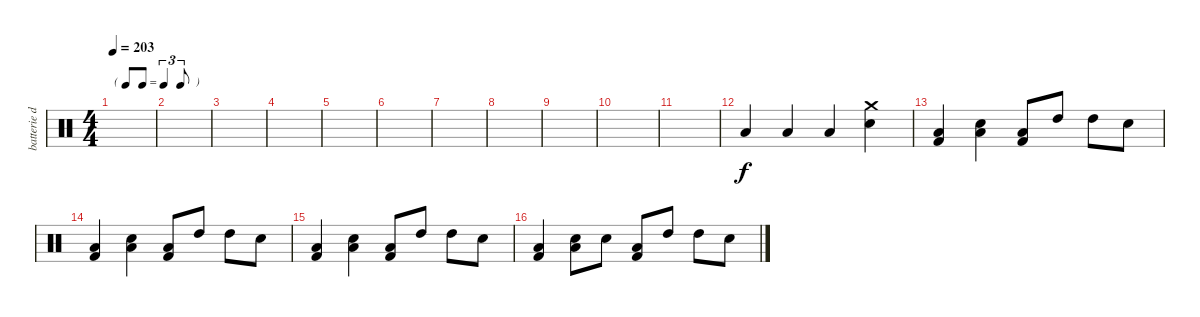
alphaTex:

\track ("batterie dub" "batterie d") {instrument percussion}
\staff {score}
\articulation defaults
\ts (4 4)
\tf triplet8th
\tempo 203
\clef neutral
\ks c
|
|
|
|
|
|
|
|
|
|
|
"Low Tom (hit)".4 "Low Tom (hit)".4 "Low Tom (hit)".4 ("Crash medium (hit)" "Electric Snare (hit)").4 |
("Low Tom (hit)" "Kick (hit) 2").4 ("Low Tom (hit)" "Electric Snare (hit)").4 ("Low Tom (hit)" "Kick (hit) 2").8 "High Tom (hit)".8 "High Tom (hit)".8 "Electric Snare (hit)".8 |
("Low Tom (hit)" "Kick (hit) 2").4 ("Low Tom (hit)" "Electric Snare (hit)").4 ("Low Tom (hit)" "Kick (hit) 2").8 "High Tom (hit)".8 "High Tom (hit)".8 "Electric Snare (hit)".8 |
("Low Tom (hit)" "Kick (hit) 2").4 ("Low Tom (hit)" "Electric Snare (hit)").4 ("Low Tom (hit)" "Kick (hit) 2").8 "High Tom (hit)".8 "High Tom (hit)".8 "Electric Snare (hit)".8 |
("Low Tom (hit)" "Kick (hit) 2").4 ("Low Tom (hit)" "Electric Snare (hit)").8 "Electric Snare (hit)".8 ("Low Tom (hit)" "Kick (hit) 2").8 "High Tom (hit)".8 "High Tom (hit)".8 "Electric Snare (hit)".8
